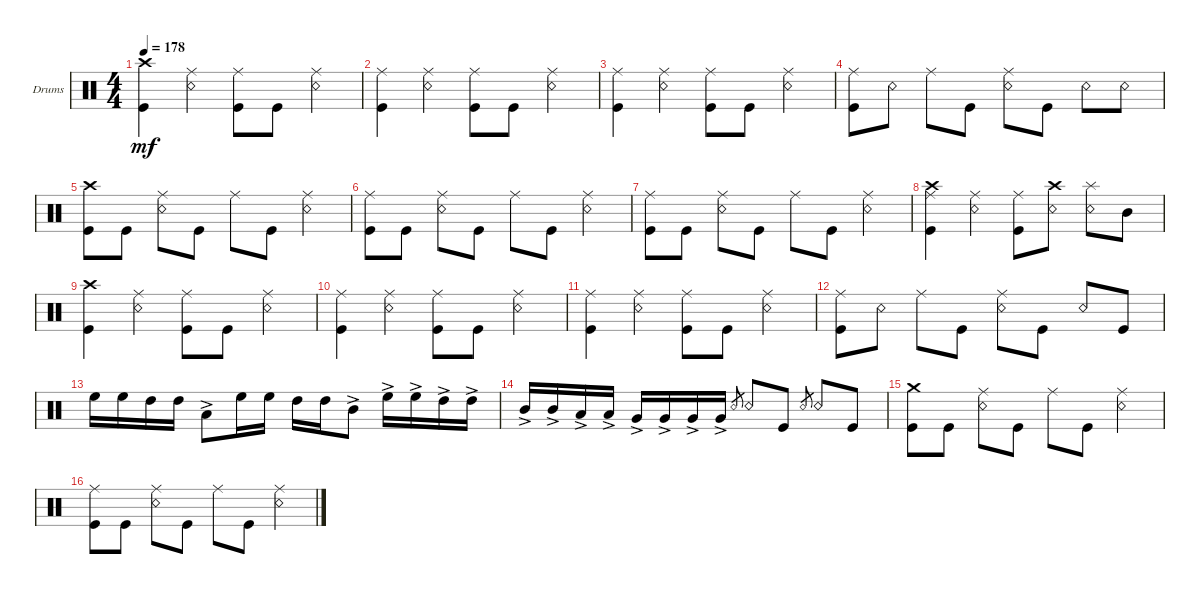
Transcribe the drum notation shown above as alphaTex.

\defaultSystemsLayout 4
\bracketExtendMode groupsimilarinstruments
\firstSystemTrackNameOrientation horizontal
\otherSystemsTrackNameOrientation horizontal
\track ("Drumkit" "Drums") {instrument percussion}
\staff {score}
\articulation defaults
\ts (4 4)
\tempo 178
\clef neutral
\ks c
("Crash high (hit)" "Kick (hit)").4{dy mf} ("Ride (middle)" "Snare (rim shot)").4 ("Kick (hit)" "Ride (middle)").8 "Kick (hit)".8 ("Snare (rim shot)" "Ride (middle)").4 |
("Kick (hit)" "Ride (middle)").4 ("Ride (middle)" "Snare (rim shot)").4 ("Kick (hit)" "Ride (middle)").8 "Kick (hit)".8 ("Snare (rim shot)" "Ride (middle)").4 |
("Kick (hit)" "Ride (middle)").4 ("Ride (middle)" "Snare (rim shot)").4 ("Kick (hit)" "Ride (middle)").8 "Kick (hit)".8 ("Snare (rim shot)" "Ride (middle)").4 |
("Kick (hit)" "Ride (middle)").8 "Snare (rim shot)".8 "Ride (middle)".8 "Kick (hit)".8 ("Snare (rim shot)" "Ride (middle)").8 "Kick (hit)".8 "Snare (rim shot)".8 "Snare (rim shot)".8 |
("Crash high (hit)" "Kick (hit)").8 "Kick (hit)".8 ("Ride (middle)" "Snare (rim shot)").8 "Kick (hit)".8 "Ride (middle)".8 "Kick (hit)".8 ("Snare (rim shot)" "Ride (middle)").4 |
("Kick (hit)" "Ride (middle)").8 "Kick (hit)".8 ("Ride (middle)" "Snare (rim shot)").8 "Kick (hit)".8 "Ride (middle)".8 "Kick (hit)".8 ("Snare (rim shot)" "Ride (middle)").4 |
("Kick (hit)" "Ride (middle)").8 "Kick (hit)".8 ("Ride (middle)" "Snare (rim shot)").8 "Kick (hit)".8 "Ride (middle)".8 "Kick (hit)".8 ("Snare (rim shot)" "Ride (middle)").4 |
("Kick (hit)" "Ride (middle)" "Crash high (hit)").4 ("Ride (middle)" "Snare (rim shot)").4 ("Kick (hit)" "Ride (middle)").8 ("Snare (rim shot)" "Crash high (hit)").8 ("Snare (rim shot)" "Splash (hit)").8 "Mid Tom (hit)".8 |
("Crash high (hit)" "Kick (hit)").4 ("Ride (middle)" "Snare (rim shot)").4 ("Kick (hit)" "Ride (middle)").8 "Kick (hit)".8 ("Snare (rim shot)" "Ride (middle)").4 |
("Kick (hit)" "Ride (middle)").4 ("Ride (middle)" "Snare (rim shot)").4 ("Kick (hit)" "Ride (middle)").8 "Kick (hit)".8 ("Snare (rim shot)" "Ride (middle)").4 |
("Kick (hit)" "Ride (middle)").4 ("Ride (middle)" "Snare (rim shot)").4 ("Kick (hit)" "Ride (middle)").8 "Kick (hit)".8 ("Snare (rim shot)" "Ride (middle)").4 |
("Kick (hit)" "Ride (middle)").8 "Snare (rim shot)".8 "Ride (middle)".8 "Kick (hit)".8 ("Snare (rim shot)" "Ride (middle)").8 "Kick (hit)".8 "Snare (rim shot)".8 "Kick (hit)".8 |
"High Floor Tom (hit)".16 "High Floor Tom (hit)".16 "High Tom (hit)".16 "High Tom (hit)".16 "Low Tom (hit)"{ac}.8 "High Floor Tom (hit)".16 "High Floor Tom (hit)".16 "High Tom (hit)".16 "High Tom (hit)".16 "Mid Tom (hit)"{ac}.8 "High Floor Tom (hit)"{ac}.16 "High Floor Tom (hit)"{ac}.16 "High Tom (hit)"{ac}.16 "High Tom (hit)"{ac}.16 |
"Mid Tom (hit)"{ac}.16 "Mid Tom (hit)"{ac}.16 "Low Tom (hit)"{ac}.16 "Low Tom (hit)"{ac}.16 "Very Low Tom (hit)"{ac}.16 "Very Low Tom (hit)"{ac}.16 "Very Low Tom (hit)"{ac}.16 "Very Low Tom (hit)"{ac}.16 "Snare (rim shot)".8{gr} "Snare (rim shot)".8 "Kick (hit)".8 "Snare (rim shot)".8{gr} "Snare (rim shot)".8 "Kick (hit)".8 |
("Kick (hit)" "Crash medium (hit)").8 "Kick (hit)".8 ("Snare (rim shot)" "Ride (middle)").8 "Kick (hit)".8 "Ride (middle)".8 "Kick (hit)".8 ("Snare (rim shot)" "Ride (middle)").4 |
("Kick (hit)" "Ride (middle)").8 "Kick (hit)".8 ("Snare (rim shot)" "Ride (middle)").8 "Kick (hit)".8 "Ride (middle)".8 "Kick (hit)".8 ("Snare (rim shot)" "Ride (middle)").4
